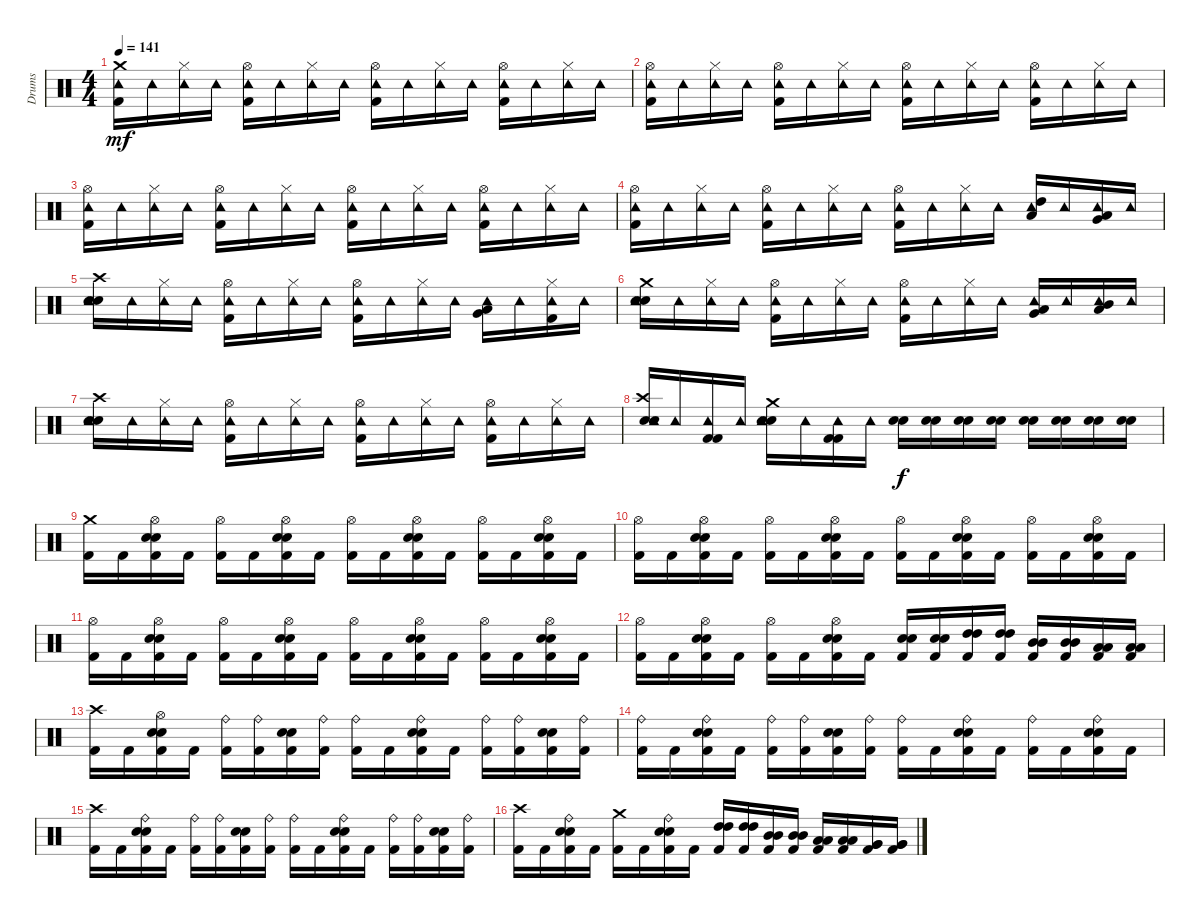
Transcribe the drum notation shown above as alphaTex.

\track ("Drums " "Drums ") {instrument percussion}
\staff {score}
\articulation defaults
\ts (4 4)
\tempo 141
\clef neutral
\ks c
("Crash medium (hit)" "Tambourine (hit)" "Kick (hit) 2").16{dy mf} "Tambourine (hit)".16 ("Hi-Hat (closed)" "Tambourine (hit)").16 "Tambourine (hit)".16 ("Hi-Hat (open)" "Tambourine (hit)" "Kick (hit) 2").16 "Tambourine (hit)".16 ("Hi-Hat (closed)" "Tambourine (hit)").16 "Tambourine (hit)".16 ("Hi-Hat (open)" "Tambourine (hit)" "Kick (hit) 2").16 "Tambourine (hit)".16 ("Hi-Hat (closed)" "Tambourine (hit)").16 "Tambourine (hit)".16 ("Hi-Hat (open)" "Tambourine (hit)" "Kick (hit) 2").16 "Tambourine (hit)".16 ("Hi-Hat (closed)" "Tambourine (hit)").16 "Tambourine (hit)".16 |
("Hi-Hat (open)" "Tambourine (hit)" "Kick (hit) 2").16 "Tambourine (hit)".16 ("Hi-Hat (closed)" "Tambourine (hit)").16 "Tambourine (hit)".16 ("Hi-Hat (open)" "Tambourine (hit)" "Kick (hit) 2").16 "Tambourine (hit)".16 ("Hi-Hat (closed)" "Tambourine (hit)").16 "Tambourine (hit)".16 ("Hi-Hat (open)" "Tambourine (hit)" "Kick (hit) 2").16 "Tambourine (hit)".16 ("Hi-Hat (closed)" "Tambourine (hit)").16 "Tambourine (hit)".16 ("Hi-Hat (open)" "Tambourine (hit)" "Kick (hit) 2").16 "Tambourine (hit)".16 ("Hi-Hat (closed)" "Tambourine (hit)").16 "Tambourine (hit)".16 |
("Hi-Hat (open)" "Tambourine (hit)" "Kick (hit) 2").16 "Tambourine (hit)".16 ("Hi-Hat (closed)" "Tambourine (hit)").16 "Tambourine (hit)".16 ("Hi-Hat (open)" "Tambourine (hit)" "Kick (hit) 2").16 "Tambourine (hit)".16 ("Hi-Hat (closed)" "Tambourine (hit)").16 "Tambourine (hit)".16 ("Hi-Hat (open)" "Tambourine (hit)" "Kick (hit) 2").16 "Tambourine (hit)".16 ("Hi-Hat (closed)" "Tambourine (hit)").16 "Tambourine (hit)".16 ("Hi-Hat (open)" "Tambourine (hit)" "Kick (hit) 2").16 "Tambourine (hit)".16 ("Hi-Hat (closed)" "Tambourine (hit)").16 "Tambourine (hit)".16 |
("Hi-Hat (open)" "Tambourine (hit)" "Kick (hit) 2").16 "Tambourine (hit)".16 ("Hi-Hat (closed)" "Tambourine (hit)").16 "Tambourine (hit)".16 ("Hi-Hat (open)" "Tambourine (hit)" "Kick (hit) 2").16 "Tambourine (hit)".16 ("Hi-Hat (closed)" "Tambourine (hit)").16 "Tambourine (hit)".16 ("Hi-Hat (open)" "Tambourine (hit)" "Kick (hit) 2").16 "Tambourine (hit)".16 ("Hi-Hat (closed)" "Tambourine (hit)").16 "Tambourine (hit)".16 ("High Tom (hit)" "Low Tom (hit)" "Tambourine (hit)").16 "Tambourine (hit)".16 ("Low Tom (hit)" "Very Low Tom (hit)" "Tambourine (hit)").16 "Tambourine (hit)".16 |
("Crash high (hit)" "Snare (hit) 2" "Electric Snare (hit)" "Tambourine (hit)").16 "Tambourine (hit)".16 ("Hi-Hat (closed)" "Tambourine (hit)").16 "Tambourine (hit)".16 ("Hi-Hat (open)" "Tambourine (hit)" "Kick (hit) 2").16 "Tambourine (hit)".16 ("Hi-Hat (closed)" "Tambourine (hit)").16 "Tambourine (hit)".16 ("Hi-Hat (open)" "Tambourine (hit)" "Kick (hit) 2").16 "Tambourine (hit)".16 ("Hi-Hat (closed)" "Tambourine (hit)").16 "Tambourine (hit)".16 ("Low Tom (hit)" "Very Low Tom (hit)" "Tambourine (hit)").16 "Tambourine (hit)".16 ("Hi-Hat (closed)" "Tambourine (hit)" "Kick (hit) 2").16 "Tambourine (hit)".16 |
("Crash medium (hit)" "Snare (hit) 2" "Electric Snare (hit)" "Tambourine (hit)").16 "Tambourine (hit)".16 ("Hi-Hat (closed)" "Tambourine (hit)").16 "Tambourine (hit)".16 ("Hi-Hat (open)" "Tambourine (hit)" "Kick (hit) 2").16 "Tambourine (hit)".16 ("Hi-Hat (closed)" "Tambourine (hit)").16 "Tambourine (hit)".16 ("Hi-Hat (open)" "Tambourine (hit)" "Kick (hit) 2").16 "Tambourine (hit)".16 ("Hi-Hat (closed)" "Tambourine (hit)").16 "Tambourine (hit)".16 ("Low Tom (hit)" "Very Low Tom (hit)" "Tambourine (hit)").16 "Tambourine (hit)".16 ("Mid Tom (hit)" "Low Tom (hit)" "Tambourine (hit)").16 "Tambourine (hit)".16 |
("Crash high (hit)" "Snare (hit) 2" "Electric Snare (hit)" "Tambourine (hit)").16 "Tambourine (hit)".16 ("Hi-Hat (closed)" "Tambourine (hit)").16 "Tambourine (hit)".16 ("Hi-Hat (open)" "Tambourine (hit)" "Kick (hit) 2").16 "Tambourine (hit)".16 ("Hi-Hat (closed)" "Tambourine (hit)").16 "Tambourine (hit)".16 ("Hi-Hat (open)" "Tambourine (hit)" "Kick (hit) 2").16 "Tambourine (hit)".16 ("Hi-Hat (closed)" "Tambourine (hit)").16 "Tambourine (hit)".16 ("Hi-Hat (open)" "Tambourine (hit)" "Kick (hit) 2").16 "Tambourine (hit)".16 ("Hi-Hat (closed)" "Tambourine (hit)").16 "Tambourine (hit)".16 |
("Crash high (hit)" "Snare (hit) 2" "Electric Snare (hit)" "Tambourine (hit)").16 "Tambourine (hit)".16 ("Kick (hit) 2" "Tambourine (hit)" "Kick (hit) 2").16 "Tambourine (hit)".16 ("Crash medium (hit)" "Snare (hit) 2" "Electric Snare (hit)" "Tambourine (hit)").16 "Tambourine (hit)".16 ("Kick (hit) 2" "Tambourine (hit)" "Kick (hit) 2").16 "Tambourine (hit)".16 ("Snare (hit) 2" "Electric Snare (hit)").16{dy f} ("Snare (hit) 2" "Electric Snare (hit)").16 ("Snare (hit) 2" "Electric Snare (hit)").16 ("Snare (hit) 2" "Electric Snare (hit)").16 ("Snare (hit) 2" "Electric Snare (hit)").16 ("Snare (hit) 2" "Electric Snare (hit)").16 ("Snare (hit) 2" "Electric Snare (hit)").16 ("Snare (hit) 2" "Electric Snare (hit)").16 |
("Crash medium (hit)" "Kick (hit) 2").16 "Kick (hit) 2".16 ("Hi-Hat (open)" "Snare (hit) 2" "Electric Snare (hit)" "Kick (hit) 2").16 "Kick (hit) 2".16 ("Hi-Hat (open)" "Kick (hit) 2").16 "Kick (hit) 2".16 ("Hi-Hat (open)" "Snare (hit) 2" "Electric Snare (hit)" "Kick (hit) 2").16 "Kick (hit) 2".16 ("Hi-Hat (open)" "Kick (hit) 2").16 "Kick (hit) 2".16 ("Hi-Hat (open)" "Snare (hit) 2" "Electric Snare (hit)" "Kick (hit) 2").16 "Kick (hit) 2".16 ("Hi-Hat (open)" "Kick (hit) 2").16 "Kick (hit) 2".16 ("Hi-Hat (open)" "Snare (hit) 2" "Electric Snare (hit)" "Kick (hit) 2").16 "Kick (hit) 2".16 |
("Hi-Hat (open)" "Kick (hit) 2").16 "Kick (hit) 2".16 ("Hi-Hat (open)" "Snare (hit) 2" "Electric Snare (hit)" "Kick (hit) 2").16 "Kick (hit) 2".16 ("Hi-Hat (open)" "Kick (hit) 2").16 "Kick (hit) 2".16 ("Hi-Hat (open)" "Snare (hit) 2" "Electric Snare (hit)" "Kick (hit) 2").16 "Kick (hit) 2".16 ("Hi-Hat (open)" "Kick (hit) 2").16 "Kick (hit) 2".16 ("Hi-Hat (open)" "Snare (hit) 2" "Electric Snare (hit)" "Kick (hit) 2").16 "Kick (hit) 2".16 ("Hi-Hat (open)" "Kick (hit) 2").16 "Kick (hit) 2".16 ("Hi-Hat (open)" "Snare (hit) 2" "Electric Snare (hit)" "Kick (hit) 2").16 "Kick (hit) 2".16 |
("Hi-Hat (open)" "Kick (hit) 2").16 "Kick (hit) 2".16 ("Hi-Hat (open)" "Snare (hit) 2" "Electric Snare (hit)" "Kick (hit) 2").16 "Kick (hit) 2".16 ("Hi-Hat (open)" "Kick (hit) 2").16 "Kick (hit) 2".16 ("Hi-Hat (open)" "Snare (hit) 2" "Electric Snare (hit)" "Kick (hit) 2").16 "Kick (hit) 2".16 ("Hi-Hat (open)" "Kick (hit) 2").16 "Kick (hit) 2".16 ("Hi-Hat (open)" "Snare (hit) 2" "Electric Snare (hit)" "Kick (hit) 2").16 "Kick (hit) 2".16 ("Hi-Hat (open)" "Kick (hit) 2").16 "Kick (hit) 2".16 ("Hi-Hat (open)" "Snare (hit) 2" "Electric Snare (hit)" "Kick (hit) 2").16 "Kick (hit) 2".16 |
("Hi-Hat (open)" "Kick (hit) 2").16 "Kick (hit) 2".16 ("Hi-Hat (open)" "Snare (hit) 2" "Electric Snare (hit)" "Kick (hit) 2").16 "Kick (hit) 2".16 ("Hi-Hat (open)" "Kick (hit) 2").16 "Kick (hit) 2".16 ("Hi-Hat (open)" "Snare (hit) 2" "Electric Snare (hit)" "Kick (hit) 2").16 "Kick (hit) 2".16 ("Snare (hit) 2" "Electric Snare (hit)" "Kick (hit) 2").16 ("Snare (hit) 2" "Electric Snare (hit)" "Kick (hit) 2").16 ("High Tom (hit)" "High Tom (hit)" "Kick (hit) 2").16 ("High Tom (hit)" "High Tom (hit)" "Kick (hit) 2").16 ("Mid Tom (hit)" "Mid Tom (hit)" "Kick (hit) 2").16 ("Mid Tom (hit)" "Mid Tom (hit)" "Kick (hit) 2").16 ("Low Tom (hit)" "Low Tom (hit)" "Kick (hit) 2").16 ("Low Tom (hit)" "Low Tom (hit)" "Kick (hit) 2").16 |
("Crash high (hit)" "Kick (hit) 2").16 "Kick (hit) 2".16 ("Hi-Hat (open)" "Snare (hit) 2" "Electric Snare (hit)" "Kick (hit) 2").16 "Kick (hit) 2".16 ("Ride (bell)" "Kick (hit) 2").16 ("Ride (bell)" "Kick (hit) 2").16 ("Snare (hit) 2" "Electric Snare (hit)" "Kick (hit) 2").16 ("Ride (bell)" "Kick (hit) 2").16 ("Ride (bell)" "Kick (hit) 2").16 "Kick (hit) 2".16 ("Ride (bell)" "Snare (hit) 2" "Electric Snare (hit)" "Kick (hit) 2").16 "Kick (hit) 2".16 ("Ride (bell)" "Kick (hit) 2").16 ("Ride (bell)" "Kick (hit) 2").16 ("Snare (hit) 2" "Electric Snare (hit)" "Kick (hit) 2").16 ("Ride (bell)" "Kick (hit) 2").16 |
("Ride (bell)" "Kick (hit) 2").16 "Kick (hit) 2".16 ("Ride (bell)" "Snare (hit) 2" "Electric Snare (hit)" "Kick (hit) 2").16 "Kick (hit) 2".16 ("Ride (bell)" "Kick (hit) 2").16 ("Ride (bell)" "Kick (hit) 2").16 ("Snare (hit) 2" "Electric Snare (hit)" "Kick (hit) 2").16 ("Ride (bell)" "Kick (hit) 2").16 ("Ride (bell)" "Kick (hit) 2").16 "Kick (hit) 2".16 ("Ride (bell)" "Snare (hit) 2" "Electric Snare (hit)" "Kick (hit) 2").16 "Kick (hit) 2".16 ("Ride (bell)" "Kick (hit) 2").16 "Kick (hit) 2".16 ("Ride (bell)" "Snare (hit) 2" "Electric Snare (hit)" "Kick (hit) 2").16 "Kick (hit) 2".16 |
("Crash high (hit)" "Kick (hit) 2").16 "Kick (hit) 2".16 ("Ride (bell)" "Snare (hit) 2" "Electric Snare (hit)" "Kick (hit) 2").16 "Kick (hit) 2".16 ("Ride (bell)" "Kick (hit) 2").16 ("Ride (bell)" "Kick (hit) 2").16 ("Snare (hit) 2" "Electric Snare (hit)" "Kick (hit) 2").16 ("Ride (bell)" "Kick (hit) 2").16 ("Ride (bell)" "Kick (hit) 2").16 "Kick (hit) 2".16 ("Ride (bell)" "Snare (hit) 2" "Electric Snare (hit)" "Kick (hit) 2").16 "Kick (hit) 2".16 ("Ride (bell)" "Kick (hit) 2").16 ("Ride (bell)" "Kick (hit) 2").16 ("Snare (hit) 2" "Electric Snare (hit)" "Kick (hit) 2").16 ("Ride (bell)" "Kick (hit) 2").16 |
("Crash high (hit)" "Kick (hit) 2").16 "Kick (hit) 2".16 ("Ride (bell)" "Snare (hit) 2" "Electric Snare (hit)" "Kick (hit) 2").16 "Kick (hit) 2".16 ("Crash medium (hit)" "Kick (hit) 2").16 "Kick (hit) 2".16 ("Ride (bell)" "Snare (hit) 2" "Electric Snare (hit)" "Kick (hit) 2").16 "Kick (hit) 2".16 ("High Tom (hit)" "High Tom (hit)" "Kick (hit) 2").16 ("High Tom (hit)" "High Tom (hit)" "Kick (hit) 2").16 ("Mid Tom (hit)" "Mid Tom (hit)" "Kick (hit) 2").16 ("Mid Tom (hit)" "Mid Tom (hit)" "Kick (hit) 2").16 ("Low Tom (hit)" "Low Tom (hit)" "Kick (hit) 2").16 ("Low Tom (hit)" "Low Tom (hit)" "Kick (hit) 2").16 ("Very Low Tom (hit)" "Very Low Tom (hit)" "Kick (hit) 2").16 ("Very Low Tom (hit)" "Very Low Tom (hit)" "Kick (hit) 2").16
